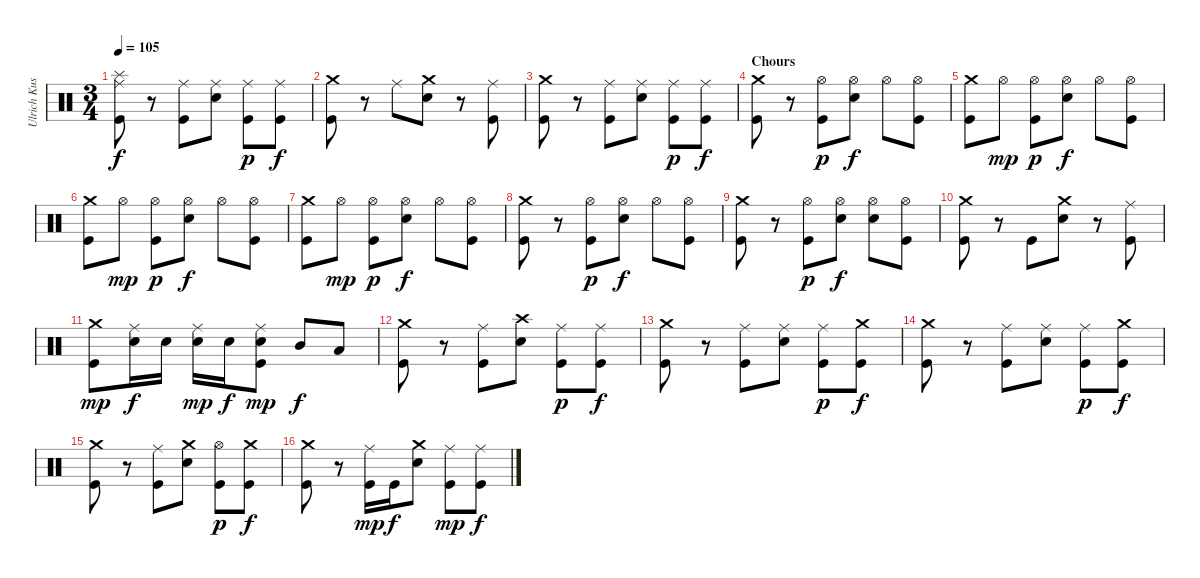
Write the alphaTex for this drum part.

\track ("Ulrich Kusch" "Ulrich Kus") {instrument percussion}
\staff {score}
\articulation defaults
\ts (3 4)
\tempo 105
\clef neutral
\ks c
("Ride (middle)" "Splash (hit)" "Kick (hit)").8{dy f} r.8 ("Ride (middle)" "Kick (hit)").8 ("Ride (middle)" "Electric Snare (hit)").8 ("Ride (middle)" "Kick (hit)").8{dy p} ("Ride (middle)" "Kick (hit)").8{dy f} |
("Crash medium (hit)" "Kick (hit)").8 r.8 "Ride (middle)".8 ("Crash medium (hit)" "Electric Snare (hit)").8 r.8 ("Ride (middle)" "Kick (hit)").8 |
("Crash medium (hit)" "Kick (hit)").8 r.8 ("Ride (middle)" "Kick (hit)").8 ("Ride (middle)" "Electric Snare (hit)").8 ("Ride (middle)" "Kick (hit)").8{dy p} ("Ride (middle)" "Kick (hit)").8{dy f} |
\section ("" "Chours")
("Crash medium (hit)" "Kick (hit)").8 r.8 ("Hi-Hat (open)" "Kick (hit)").8{dy p} ("Hi-Hat (open)" "Electric Snare (hit)").8{dy f} "Hi-Hat (open)".8 ("Hi-Hat (open)" "Kick (hit)").8 |
("Crash medium (hit)" "Kick (hit)").8 "Hi-Hat (open)".8{dy mp} ("Hi-Hat (open)" "Kick (hit)").8{dy p} ("Hi-Hat (open)" "Electric Snare (hit)").8{dy f} "Hi-Hat (open)".8 ("Hi-Hat (open)" "Kick (hit)").8 |
("Crash medium (hit)" "Kick (hit)").8 "Hi-Hat (open)".8{dy mp} ("Hi-Hat (open)" "Kick (hit)").8{dy p} ("Hi-Hat (open)" "Electric Snare (hit)").8{dy f} "Hi-Hat (open)".8 ("Hi-Hat (open)" "Kick (hit)").8 |
("Crash medium (hit)" "Kick (hit)").8 "Hi-Hat (open)".8{dy mp} ("Hi-Hat (open)" "Kick (hit)").8{dy p} ("Hi-Hat (open)" "Electric Snare (hit)").8{dy f} "Hi-Hat (open)".8 ("Hi-Hat (open)" "Kick (hit)").8 |
("Crash medium (hit)" "Kick (hit)").8 r.8 ("Hi-Hat (open)" "Kick (hit)").8{dy p} ("Hi-Hat (open)" "Electric Snare (hit)").8{dy f} "Hi-Hat (open)".8 ("Hi-Hat (open)" "Kick (hit)").8 |
("Crash medium (hit)" "Kick (hit)").8 r.8 ("Hi-Hat (open)" "Kick (hit)").8{dy p} ("Hi-Hat (open)" "Electric Snare (hit)").8{dy f} ("Hi-Hat (open)" "Electric Snare (hit)").8 ("Hi-Hat (open)" "Kick (hit)").8 |
("Crash medium (hit)" "Kick (hit)").8 r.8 "Kick (hit)".8 ("Crash medium (hit)" "Electric Snare (hit)").8 r.8 ("Ride (middle)" "Kick (hit)").8 |
("Crash medium (hit)" "Kick (hit)").8{dy mp} ("Ride (middle)" "Electric Snare (hit)").16{dy f} "Electric Snare (hit)".16 ("Ride (middle)" "Electric Snare (hit)").16{dy mp} "Electric Snare (hit)".16{dy f} ("Ride (middle)" "Electric Snare (hit)" "Kick (hit)").8{dy mp} "Mid Tom (hit)".8{dy f} "Low Tom (hit)".8 |
("Crash medium (hit)" "Kick (hit)").8 r.8 ("Ride (middle)" "Kick (hit)").8 ("Crash high (hit)" "Electric Snare (hit)").8 ("Ride (middle)" "Kick (hit)").8{dy p} ("Ride (middle)" "Kick (hit)").8{dy f} |
("Crash medium (hit)" "Kick (hit)").8 r.8 ("Ride (middle)" "Kick (hit)").8 ("Ride (middle)" "Electric Snare (hit)").8 ("Ride (middle)" "Kick (hit)").8{dy p} ("Crash medium (hit)" "Kick (hit)").8{dy f} |
("Crash medium (hit)" "Kick (hit)").8 r.8 ("Ride (middle)" "Kick (hit)").8 ("Ride (middle)" "Electric Snare (hit)").8 ("Ride (middle)" "Kick (hit)").8{dy p} ("Crash medium (hit)" "Kick (hit)").8{dy f} |
("Crash medium (hit)" "Kick (hit)").8 r.8 ("Ride (middle)" "Kick (hit)").8 ("Crash medium (hit)" "Electric Snare (hit)").8 ("Hi-Hat (open)" "Kick (hit)").8{dy p} ("Crash medium (hit)" "Kick (hit)").8{dy f} |
("Crash medium (hit)" "Kick (hit)").8 r.8 ("Ride (middle)" "Kick (hit)").16{dy mp} "Kick (hit)".16{dy f} ("Crash medium (hit)" "Electric Snare (hit)").8 ("Ride (middle)" "Kick (hit)").8{dy mp} ("Ride (middle)" "Kick (hit)").8{dy f}
